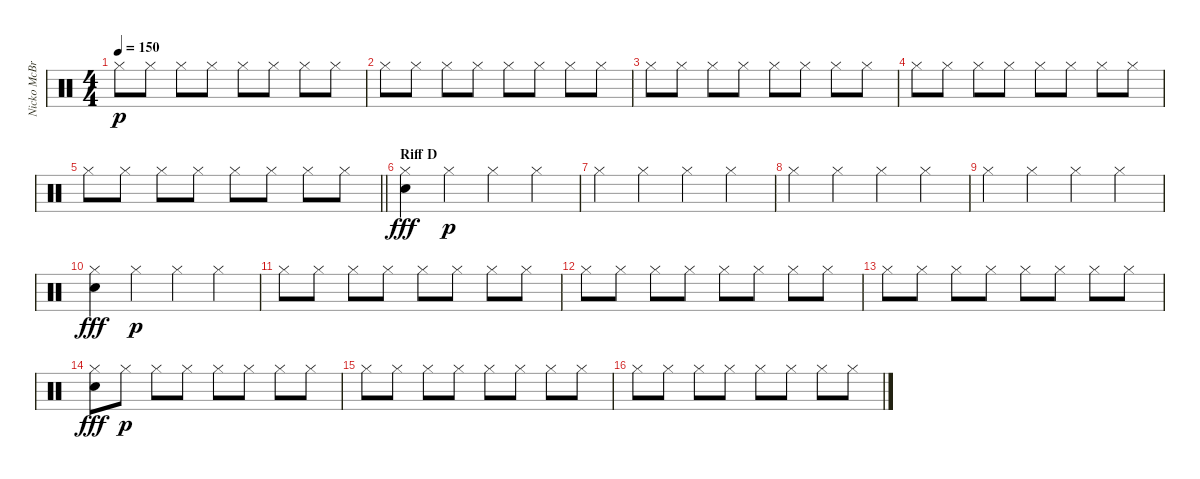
\track ("Nicko McBrain" "Nicko McBr") {instrument percussion}
\staff {score}
\articulation defaults
\ts (4 4)
\tempo 150
\clef neutral
\ks c "Hi-Hat (closed)".8{dy p} "Hi-Hat (closed)".8 "Hi-Hat (closed)".8 "Hi-Hat (closed)".8 "Hi-Hat (closed)".8 "Hi-Hat (closed)".8 "Hi-Hat (closed)".8 "Hi-Hat (closed)".8
|
"Hi-Hat (closed)".8 "Hi-Hat (closed)".8 "Hi-Hat (closed)".8 "Hi-Hat (closed)".8 "Hi-Hat (closed)".8 "Hi-Hat (closed)".8 "Hi-Hat (closed)".8 "Hi-Hat (closed)".8 |
"Hi-Hat (closed)".8 "Hi-Hat (closed)".8 "Hi-Hat (closed)".8 "Hi-Hat (closed)".8 "Hi-Hat (closed)".8 "Hi-Hat (closed)".8 "Hi-Hat (closed)".8 "Hi-Hat (closed)".8 |
"Hi-Hat (closed)".8 "Hi-Hat (closed)".8 "Hi-Hat (closed)".8 "Hi-Hat (closed)".8 "Hi-Hat (closed)".8 "Hi-Hat (closed)".8 "Hi-Hat (closed)".8 "Hi-Hat (closed)".8 |
\barLineRight lightlight "Hi-Hat (closed)".8 "Hi-Hat (closed)".8 "Hi-Hat (closed)".8 "Hi-Hat (closed)".8 "Hi-Hat (closed)".8 "Hi-Hat (closed)".8 "Hi-Hat (closed)".8 "Hi-Hat (closed)".8
|
\section ("" "Riff D")
("Hi-Hat (closed)" "Snare (hit) 2").4{dy fff} "Hi-Hat (closed)".4{dy p} "Hi-Hat (closed)".4 "Hi-Hat (closed)".4 |
"Hi-Hat (closed)".4 "Hi-Hat (closed)".4 "Hi-Hat (closed)".4 "Hi-Hat (closed)".4 |
"Hi-Hat (closed)".4 "Hi-Hat (closed)".4 "Hi-Hat (closed)".4 "Hi-Hat (closed)".4 |
"Hi-Hat (closed)".4 "Hi-Hat (closed)".4 "Hi-Hat (closed)".4 "Hi-Hat (closed)".4 |
("Hi-Hat (closed)" "Snare (hit) 2").4{dy fff} "Hi-Hat (closed)".4{dy p} "Hi-Hat (closed)".4 "Hi-Hat (closed)".4 |
"Hi-Hat (closed)".8 "Hi-Hat (closed)".8 "Hi-Hat (closed)".8 "Hi-Hat (closed)".8 "Hi-Hat (closed)".8 "Hi-Hat (closed)".8 "Hi-Hat (closed)".8 "Hi-Hat (closed)".8 |
"Hi-Hat (closed)".8 "Hi-Hat (closed)".8 "Hi-Hat (closed)".8 "Hi-Hat (closed)".8 "Hi-Hat (closed)".8 "Hi-Hat (closed)".8 "Hi-Hat (closed)".8 "Hi-Hat (closed)".8 |
"Hi-Hat (closed)".8 "Hi-Hat (closed)".8 "Hi-Hat (closed)".8 "Hi-Hat (closed)".8 "Hi-Hat (closed)".8 "Hi-Hat (closed)".8 "Hi-Hat (closed)".8 "Hi-Hat (closed)".8 |
("Hi-Hat (closed)" "Snare (hit) 2").8{dy fff} "Hi-Hat (closed)".8{dy p} "Hi-Hat (closed)".8 "Hi-Hat (closed)".8 "Hi-Hat (closed)".8 "Hi-Hat (closed)".8 "Hi-Hat (closed)".8 "Hi-Hat (closed)".8 |
"Hi-Hat (closed)".8 "Hi-Hat (closed)".8 "Hi-Hat (closed)".8 "Hi-Hat (closed)".8 "Hi-Hat (closed)".8 "Hi-Hat (closed)".8 "Hi-Hat (closed)".8 "Hi-Hat (closed)".8 |
"Hi-Hat (closed)".8 "Hi-Hat (closed)".8 "Hi-Hat (closed)".8 "Hi-Hat (closed)".8 "Hi-Hat (closed)".8 "Hi-Hat (closed)".8 "Hi-Hat (closed)".8 "Hi-Hat (closed)".8
